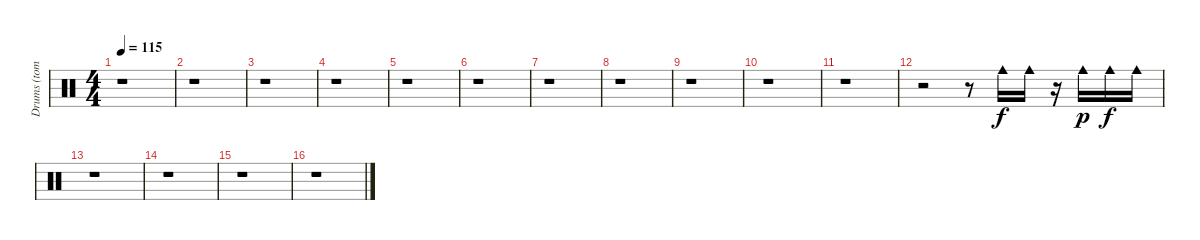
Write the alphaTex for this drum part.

\track ("Drums (toms)" "Drums (tom") {instrument percussion}
\staff {score}
\articulation defaults
\ts (4 4)
\tempo 115
\clef neutral
\ks c
r.1{dy f} |
r.1 |
r.1 |
r.1 |
r.1 |
r.1 |
r.1 |
r.1 |
r.1 |
r.1 |
r.1 |
r.2 r.8 "Cowbell medium (hit)".16 "Cowbell medium (hit)".16 r.16 "Cowbell medium (hit)".16{dy p} "Cowbell medium (hit)".16{dy f} "Cowbell medium (hit)".16 |
r.1 |
r.1 |
r.1 |
r.1
